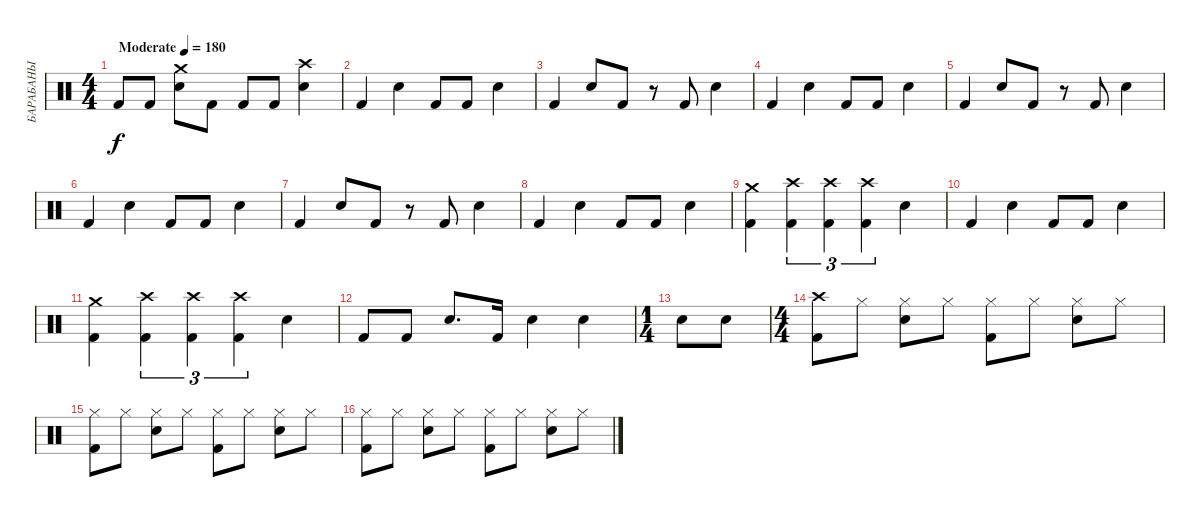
\track ("БАРАБАНЫ" "БАРАБАНЫ") {instrument percussion}
\staff {score}
\articulation defaults
\ts (4 4)
\tempo (180 "Moderate")
\clef neutral
\ks c "Kick (hit) 2".8{dy f} "Kick (hit) 2".8
("Electric Snare (hit)" "Crash medium (hit)").8 "Kick (hit) 2".8 "Kick (hit) 2".8 "Kick (hit) 2".8 ("Electric Snare (hit)" "Crash high (hit)").4 |
"Kick (hit) 2".4 "Electric Snare (hit)".4 "Kick (hit) 2".8 "Kick (hit) 2".8 "Electric Snare (hit)".4 |
"Kick (hit) 2".4 "Electric Snare (hit)".8 "Kick (hit) 2".8 r.8 "Kick (hit) 2".8 "Electric Snare (hit)".4 |
"Kick (hit) 2".4 "Electric Snare (hit)".4 "Kick (hit) 2".8 "Kick (hit) 2".8 "Electric Snare (hit)".4 |
"Kick (hit) 2".4 "Electric Snare (hit)".8 "Kick (hit) 2".8 r.8 "Kick (hit) 2".8 "Electric Snare (hit)".4 |
"Kick (hit) 2".4 "Electric Snare (hit)".4 "Kick (hit) 2".8 "Kick (hit) 2".8 "Electric Snare (hit)".4 |
"Kick (hit) 2".4 "Electric Snare (hit)".8 "Kick (hit) 2".8 r.8 "Kick (hit) 2".8 "Electric Snare (hit)".4 |
"Kick (hit) 2".4 "Electric Snare (hit)".4 "Kick (hit) 2".8 "Kick (hit) 2".8 "Electric Snare (hit)".4 |
("Kick (hit) 2" "Crash medium (hit)").4 ("Kick (hit) 2" "Crash high (hit)").4{tu (3 2)} ("Kick (hit) 2" "Crash high (hit)").4{tu (3 2)} ("Kick (hit) 2" "Crash high (hit)").4{tu (3 2)} "Electric Snare (hit)".4 |
"Kick (hit) 2".4 "Electric Snare (hit)".4 "Kick (hit) 2".8 "Kick (hit) 2".8 "Electric Snare (hit)".4 |
("Kick (hit) 2" "Crash medium (hit)").4 ("Kick (hit) 2" "Crash high (hit)").4{tu (3 2)} ("Kick (hit) 2" "Crash high (hit)").4{tu (3 2)} ("Kick (hit) 2" "Crash high (hit)").4{tu (3 2)} "Electric Snare (hit)".4 |
"Kick (hit) 2".8 "Kick (hit) 2".8 "Electric Snare (hit)".8{d} "Kick (hit) 2".16 "Electric Snare (hit)".4 "Electric Snare (hit)".4 |
\ts (1 4)
"Electric Snare (hit)".8 "Electric Snare (hit)".8 |
\ts (4 4)
("Crash high (hit)" "Kick (hit) 2").8 "Hi-Hat (closed)".8 ("Hi-Hat (closed)" "Electric Snare (hit)").8 "Hi-Hat (closed)".8 ("Hi-Hat (closed)" "Kick (hit) 2").8 "Hi-Hat (closed)".8 ("Hi-Hat (closed)" "Electric Snare (hit)").8 "Hi-Hat (closed)".8 |
("Hi-Hat (closed)" "Kick (hit) 2").8 "Hi-Hat (closed)".8 ("Hi-Hat (closed)" "Electric Snare (hit)").8 "Hi-Hat (closed)".8 ("Hi-Hat (closed)" "Kick (hit) 2").8 "Hi-Hat (closed)".8 ("Hi-Hat (closed)" "Electric Snare (hit)").8 "Hi-Hat (closed)".8 |
("Hi-Hat (closed)" "Kick (hit) 2").8 "Hi-Hat (closed)".8 ("Hi-Hat (closed)" "Electric Snare (hit)").8 "Hi-Hat (closed)".8 ("Hi-Hat (closed)" "Kick (hit) 2").8 "Hi-Hat (closed)".8 ("Hi-Hat (closed)" "Electric Snare (hit)").8 "Hi-Hat (closed)".8
